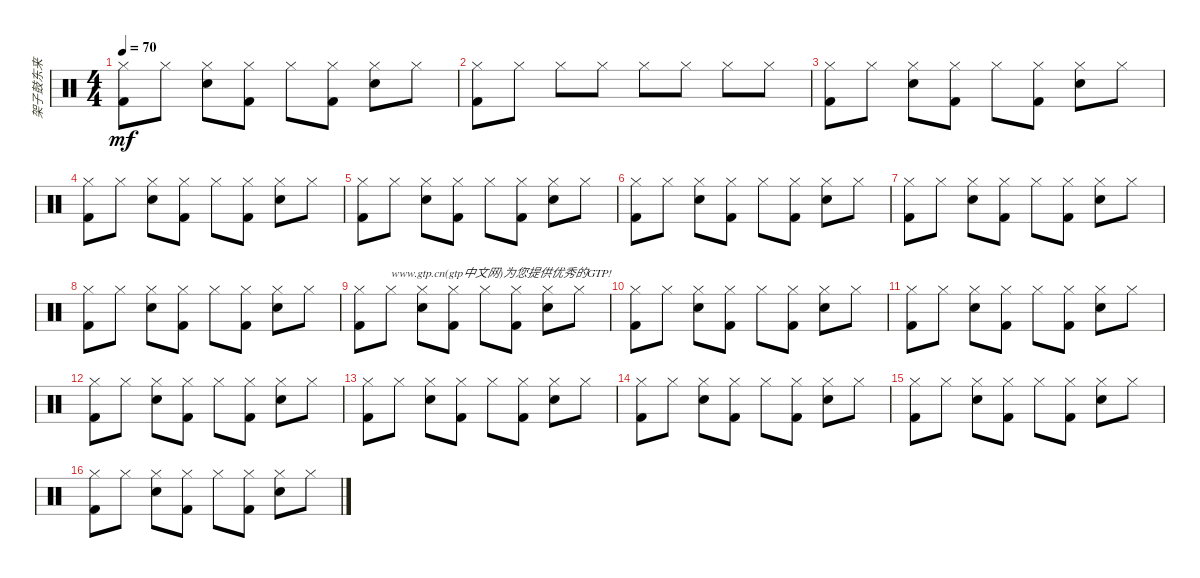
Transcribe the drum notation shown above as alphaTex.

\track ("架子鼓东来" "架子鼓东来") {instrument percussion}
\staff {score}
\articulation defaults
\ts (4 4)
\tempo 70
\clef neutral
\ks c
("Hi-Hat (closed)" "Kick (hit) 2").8{dy mf} "Hi-Hat (closed)".8 ("Hi-Hat (closed)" "Snare (hit) 2").8 ("Hi-Hat (closed)" "Kick (hit) 2").8 "Hi-Hat (closed)".8 ("Hi-Hat (closed)" "Kick (hit) 2").8 ("Hi-Hat (closed)" "Snare (hit) 2").8 "Hi-Hat (closed)".8 |
("Hi-Hat (closed)" "Kick (hit) 2").8 "Hi-Hat (closed)".8 "Hi-Hat (closed)".8 "Hi-Hat (closed)".8 "Hi-Hat (closed)".8 "Hi-Hat (closed)".8 "Hi-Hat (closed)".8 "Hi-Hat (closed)".8 |
("Hi-Hat (closed)" "Kick (hit) 2").8 "Hi-Hat (closed)".8 ("Hi-Hat (closed)" "Snare (hit) 2").8 ("Hi-Hat (closed)" "Kick (hit) 2").8 "Hi-Hat (closed)".8 ("Hi-Hat (closed)" "Kick (hit) 2").8 ("Hi-Hat (closed)" "Snare (hit) 2").8 "Hi-Hat (closed)".8 |
("Hi-Hat (closed)" "Kick (hit) 2").8 "Hi-Hat (closed)".8 ("Hi-Hat (closed)" "Snare (hit) 2").8 ("Hi-Hat (closed)" "Kick (hit) 2").8 "Hi-Hat (closed)".8 ("Hi-Hat (closed)" "Kick (hit) 2").8 ("Hi-Hat (closed)" "Snare (hit) 2").8 "Hi-Hat (closed)".8 |
("Hi-Hat (closed)" "Kick (hit) 2").8 "Hi-Hat (closed)".8 ("Hi-Hat (closed)" "Snare (hit) 2").8 ("Hi-Hat (closed)" "Kick (hit) 2").8 "Hi-Hat (closed)".8 ("Hi-Hat (closed)" "Kick (hit) 2").8 ("Hi-Hat (closed)" "Snare (hit) 2").8 "Hi-Hat (closed)".8 |
("Hi-Hat (closed)" "Kick (hit) 2").8 "Hi-Hat (closed)".8 ("Hi-Hat (closed)" "Snare (hit) 2").8 ("Hi-Hat (closed)" "Kick (hit) 2").8 "Hi-Hat (closed)".8 ("Hi-Hat (closed)" "Kick (hit) 2").8 ("Hi-Hat (closed)" "Snare (hit) 2").8 "Hi-Hat (closed)".8 |
("Hi-Hat (closed)" "Kick (hit) 2").8 "Hi-Hat (closed)".8 ("Hi-Hat (closed)" "Snare (hit) 2").8 ("Hi-Hat (closed)" "Kick (hit) 2").8 "Hi-Hat (closed)".8 ("Hi-Hat (closed)" "Kick (hit) 2").8 ("Hi-Hat (closed)" "Snare (hit) 2").8 "Hi-Hat (closed)".8 |
("Hi-Hat (closed)" "Kick (hit) 2").8 "Hi-Hat (closed)".8 ("Hi-Hat (closed)" "Snare (hit) 2").8 ("Hi-Hat (closed)" "Kick (hit) 2").8 "Hi-Hat (closed)".8 ("Hi-Hat (closed)" "Kick (hit) 2").8 ("Hi-Hat (closed)" "Snare (hit) 2").8 "Hi-Hat (closed)".8 |
("Hi-Hat (closed)" "Kick (hit) 2").8 "Hi-Hat (closed)".8{txt "www.gtp.cn(gtp中文网)为您提供优秀的GTP!"} ("Hi-Hat (closed)" "Snare (hit) 2").8 ("Hi-Hat (closed)" "Kick (hit) 2").8 "Hi-Hat (closed)".8 ("Hi-Hat (closed)" "Kick (hit) 2").8 ("Hi-Hat (closed)" "Snare (hit) 2").8 "Hi-Hat (closed)".8 |
("Hi-Hat (closed)" "Kick (hit) 2").8 "Hi-Hat (closed)".8 ("Hi-Hat (closed)" "Snare (hit) 2").8 ("Hi-Hat (closed)" "Kick (hit) 2").8 "Hi-Hat (closed)".8 ("Hi-Hat (closed)" "Kick (hit) 2").8 ("Hi-Hat (closed)" "Snare (hit) 2").8 "Hi-Hat (closed)".8 |
("Hi-Hat (closed)" "Kick (hit) 2").8 "Hi-Hat (closed)".8 ("Hi-Hat (closed)" "Snare (hit) 2").8 ("Hi-Hat (closed)" "Kick (hit) 2").8 "Hi-Hat (closed)".8 ("Hi-Hat (closed)" "Kick (hit) 2").8 ("Hi-Hat (closed)" "Snare (hit) 2").8 "Hi-Hat (closed)".8 |
("Hi-Hat (closed)" "Kick (hit) 2").8 "Hi-Hat (closed)".8 ("Hi-Hat (closed)" "Snare (hit) 2").8 ("Hi-Hat (closed)" "Kick (hit) 2").8 "Hi-Hat (closed)".8 ("Hi-Hat (closed)" "Kick (hit) 2").8 ("Hi-Hat (closed)" "Snare (hit) 2").8 "Hi-Hat (closed)".8 |
("Hi-Hat (closed)" "Kick (hit) 2").8 "Hi-Hat (closed)".8 ("Hi-Hat (closed)" "Snare (hit) 2").8 ("Hi-Hat (closed)" "Kick (hit) 2").8 "Hi-Hat (closed)".8 ("Hi-Hat (closed)" "Kick (hit) 2").8 ("Hi-Hat (closed)" "Snare (hit) 2").8 "Hi-Hat (closed)".8 |
("Hi-Hat (closed)" "Kick (hit) 2").8 "Hi-Hat (closed)".8 ("Hi-Hat (closed)" "Snare (hit) 2").8 ("Hi-Hat (closed)" "Kick (hit) 2").8 "Hi-Hat (closed)".8 ("Hi-Hat (closed)" "Kick (hit) 2").8 ("Hi-Hat (closed)" "Snare (hit) 2").8 "Hi-Hat (closed)".8 |
("Hi-Hat (closed)" "Kick (hit) 2").8 "Hi-Hat (closed)".8 ("Hi-Hat (closed)" "Snare (hit) 2").8 ("Hi-Hat (closed)" "Kick (hit) 2").8 "Hi-Hat (closed)".8 ("Hi-Hat (closed)" "Kick (hit) 2").8 ("Hi-Hat (closed)" "Snare (hit) 2").8 "Hi-Hat (closed)".8 |
("Hi-Hat (closed)" "Kick (hit) 2").8 "Hi-Hat (closed)".8 ("Hi-Hat (closed)" "Snare (hit) 2").8 ("Hi-Hat (closed)" "Kick (hit) 2").8 "Hi-Hat (closed)".8 ("Hi-Hat (closed)" "Kick (hit) 2").8 ("Hi-Hat (closed)" "Snare (hit) 2").8 "Hi-Hat (closed)".8
